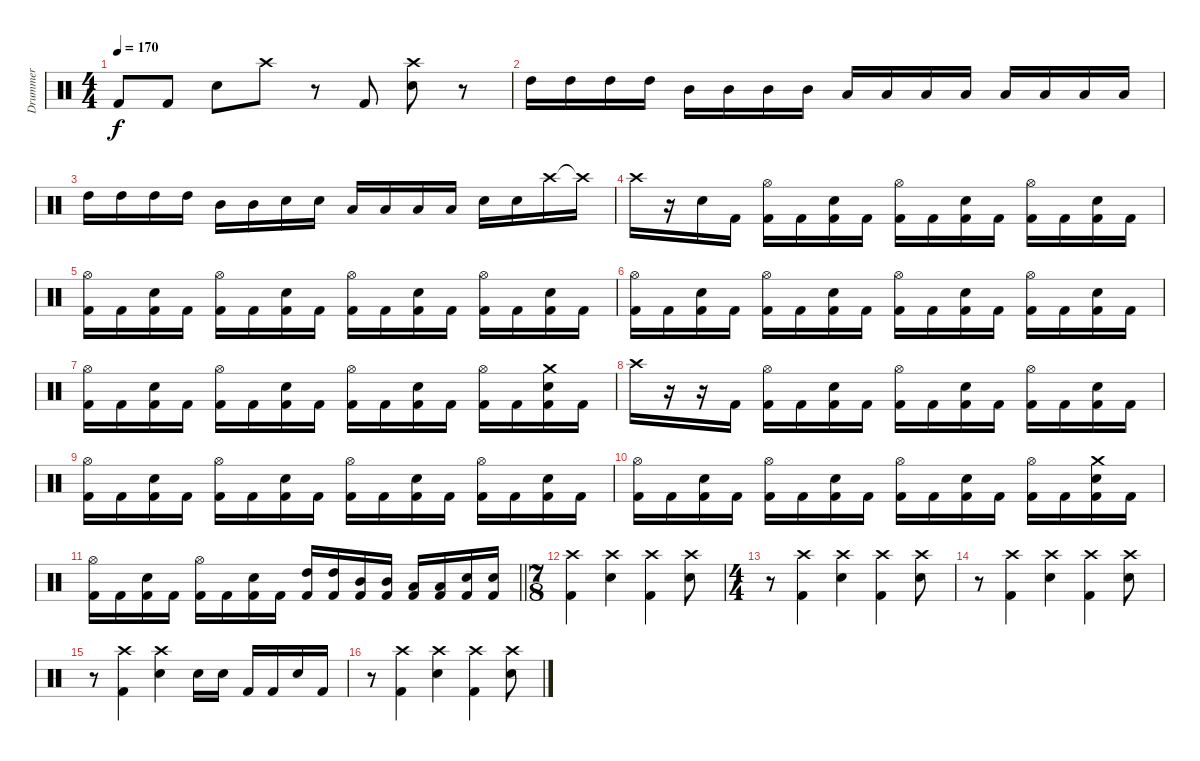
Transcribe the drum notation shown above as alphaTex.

\track ("Drummer" "Drummer") {instrument percussion}
\staff {score}
\articulation defaults
\ts (4 4)
\tempo 170
\clef neutral
\ks c "Kick (hit) 2".8{dy f} "Kick (hit) 2".8 "Electric Snare (hit)".8 "Crash high (hit)".8
r.8 "Kick (hit) 2".8 ("Crash high (hit)" "Electric Snare (hit)").8 r.8 |
"High Tom (hit)".16 "High Tom (hit)".16 "High Tom (hit)".16 "High Tom (hit)".16 "Mid Tom (hit)".16 "Mid Tom (hit)".16 "Mid Tom (hit)".16 "Mid Tom (hit)".16 "Low Tom (hit)".16 "Low Tom (hit)".16 "Low Tom (hit)".16 "Low Tom (hit)".16 "Low Tom (hit)".16 "Low Tom (hit)".16 "Low Tom (hit)".16 "Low Tom (hit)".16 |
"High Tom (hit)".16 "High Tom (hit)".16 "High Tom (hit)".16 "High Tom (hit)".16 "Mid Tom (hit)".16 "Mid Tom (hit)".16 "Electric Snare (hit)".16 "Electric Snare (hit)".16 "Low Tom (hit)".16 "Low Tom (hit)".16 "Low Tom (hit)".16 "Low Tom (hit)".16 "Electric Snare (hit)".16 "Electric Snare (hit)".16 "Crash high (hit)".16 "Crash high (hit)"{t}.16 |
"Crash high (hit)".16 r.16 "Electric Snare (hit)".16 "Kick (hit) 2".16 ("Hi-Hat (open)" "Kick (hit) 2").16 "Kick (hit) 2".16 ("Electric Snare (hit)" "Kick (hit) 2").16 "Kick (hit) 2".16 ("Hi-Hat (open)" "Kick (hit) 2").16 "Kick (hit) 2".16 ("Electric Snare (hit)" "Kick (hit) 2").16 "Kick (hit) 2".16 ("Hi-Hat (open)" "Kick (hit) 2").16 "Kick (hit) 2".16 ("Electric Snare (hit)" "Kick (hit) 2").16 "Kick (hit) 2".16 |
("Hi-Hat (open)" "Kick (hit) 2").16 "Kick (hit) 2".16 ("Electric Snare (hit)" "Kick (hit) 2").16 "Kick (hit) 2".16 ("Hi-Hat (open)" "Kick (hit) 2").16 "Kick (hit) 2".16 ("Electric Snare (hit)" "Kick (hit) 2").16 "Kick (hit) 2".16 ("Hi-Hat (open)" "Kick (hit) 2").16 "Kick (hit) 2".16 ("Electric Snare (hit)" "Kick (hit) 2").16 "Kick (hit) 2".16 ("Hi-Hat (open)" "Kick (hit) 2").16 "Kick (hit) 2".16 ("Electric Snare (hit)" "Kick (hit) 2").16 "Kick (hit) 2".16 |
("Hi-Hat (open)" "Kick (hit) 2").16 "Kick (hit) 2".16 ("Electric Snare (hit)" "Kick (hit) 2").16 "Kick (hit) 2".16 ("Hi-Hat (open)" "Kick (hit) 2").16 "Kick (hit) 2".16 ("Electric Snare (hit)" "Kick (hit) 2").16 "Kick (hit) 2".16 ("Hi-Hat (open)" "Kick (hit) 2").16 "Kick (hit) 2".16 ("Electric Snare (hit)" "Kick (hit) 2").16 "Kick (hit) 2".16 ("Hi-Hat (open)" "Kick (hit) 2").16 "Kick (hit) 2".16 ("Electric Snare (hit)" "Kick (hit) 2").16 "Kick (hit) 2".16 |
("Hi-Hat (open)" "Kick (hit) 2").16 "Kick (hit) 2".16 ("Electric Snare (hit)" "Kick (hit) 2").16 "Kick (hit) 2".16 ("Hi-Hat (open)" "Kick (hit) 2").16 "Kick (hit) 2".16 ("Electric Snare (hit)" "Kick (hit) 2").16 "Kick (hit) 2".16 ("Hi-Hat (open)" "Kick (hit) 2").16 "Kick (hit) 2".16 ("Electric Snare (hit)" "Kick (hit) 2").16 "Kick (hit) 2".16 ("Hi-Hat (open)" "Kick (hit) 2").16 "Kick (hit) 2".16 ("Crash medium (hit)" "Electric Snare (hit)" "Kick (hit) 2").16 "Kick (hit) 2".16 |
"Crash high (hit)".16 r.16 r.16 "Kick (hit) 2".16 ("Hi-Hat (open)" "Kick (hit) 2").16 "Kick (hit) 2".16 ("Electric Snare (hit)" "Kick (hit) 2").16 "Kick (hit) 2".16 ("Hi-Hat (open)" "Kick (hit) 2").16 "Kick (hit) 2".16 ("Electric Snare (hit)" "Kick (hit) 2").16 "Kick (hit) 2".16 ("Hi-Hat (open)" "Kick (hit) 2").16 "Kick (hit) 2".16 ("Electric Snare (hit)" "Kick (hit) 2").16 "Kick (hit) 2".16 |
("Hi-Hat (open)" "Kick (hit) 2").16 "Kick (hit) 2".16 ("Electric Snare (hit)" "Kick (hit) 2").16 "Kick (hit) 2".16 ("Hi-Hat (open)" "Kick (hit) 2").16 "Kick (hit) 2".16 ("Electric Snare (hit)" "Kick (hit) 2").16 "Kick (hit) 2".16 ("Hi-Hat (open)" "Kick (hit) 2").16 "Kick (hit) 2".16 ("Electric Snare (hit)" "Kick (hit) 2").16 "Kick (hit) 2".16 ("Hi-Hat (open)" "Kick (hit) 2").16 "Kick (hit) 2".16 ("Electric Snare (hit)" "Kick (hit) 2").16 "Kick (hit) 2".16 |
("Hi-Hat (open)" "Kick (hit) 2").16 "Kick (hit) 2".16 ("Electric Snare (hit)" "Kick (hit) 2").16 "Kick (hit) 2".16 ("Hi-Hat (open)" "Kick (hit) 2").16 "Kick (hit) 2".16 ("Electric Snare (hit)" "Kick (hit) 2").16 "Kick (hit) 2".16 ("Hi-Hat (open)" "Kick (hit) 2").16 "Kick (hit) 2".16 ("Electric Snare (hit)" "Kick (hit) 2").16 "Kick (hit) 2".16 ("Hi-Hat (open)" "Kick (hit) 2").16 "Kick (hit) 2".16 ("Crash medium (hit)" "Electric Snare (hit)" "Kick (hit) 2").16 "Kick (hit) 2".16 |
\barLineRight lightlight
("Hi-Hat (open)" "Kick (hit) 2").16 "Kick (hit) 2".16 ("Electric Snare (hit)" "Kick (hit) 2").16 "Kick (hit) 2".16 ("Hi-Hat (open)" "Kick (hit) 2").16 "Kick (hit) 2".16 ("Electric Snare (hit)" "Kick (hit) 2").16 "Kick (hit) 2".16 ("High Tom (hit)" "Kick (hit) 2").16 ("High Tom (hit)" "Kick (hit) 2").16 ("Mid Tom (hit)" "Kick (hit) 2").16 ("Mid Tom (hit)" "Kick (hit) 2").16 ("Low Tom (hit)" "Kick (hit) 2").16 ("Low Tom (hit)" "Kick (hit) 2").16 ("Electric Snare (hit)" "Kick (hit) 2").16 ("Electric Snare (hit)" "Kick (hit) 2").16 |
\ts (7 8)
("Crash high (hit)" "Kick (hit) 2").4 ("Crash high (hit)" "Electric Snare (hit)").4 ("Crash high (hit)" "Kick (hit) 2").4 ("Crash high (hit)" "Electric Snare (hit)").8 |
\ts (4 4)
r.8 ("Crash high (hit)" "Kick (hit) 2").4 ("Crash high (hit)" "Electric Snare (hit)").4 ("Crash high (hit)" "Kick (hit) 2").4 ("Crash high (hit)" "Electric Snare (hit)").8 |
r.8 ("Crash high (hit)" "Kick (hit) 2").4 ("Crash high (hit)" "Electric Snare (hit)").4 ("Crash high (hit)" "Kick (hit) 2").4 ("Crash high (hit)" "Electric Snare (hit)").8 |
r.8 ("Crash high (hit)" "Kick (hit) 2").4 ("Crash high (hit)" "Electric Snare (hit)").4 "Electric Snare (hit)".16 "Electric Snare (hit)".16 "Kick (hit) 2".16 "Kick (hit) 2".16 "Electric Snare (hit)".16 "Kick (hit) 2".16 |
r.8 ("Crash high (hit)" "Kick (hit) 2").4 ("Crash high (hit)" "Electric Snare (hit)").4 ("Crash high (hit)" "Kick (hit) 2").4 ("Crash high (hit)" "Electric Snare (hit)").8
